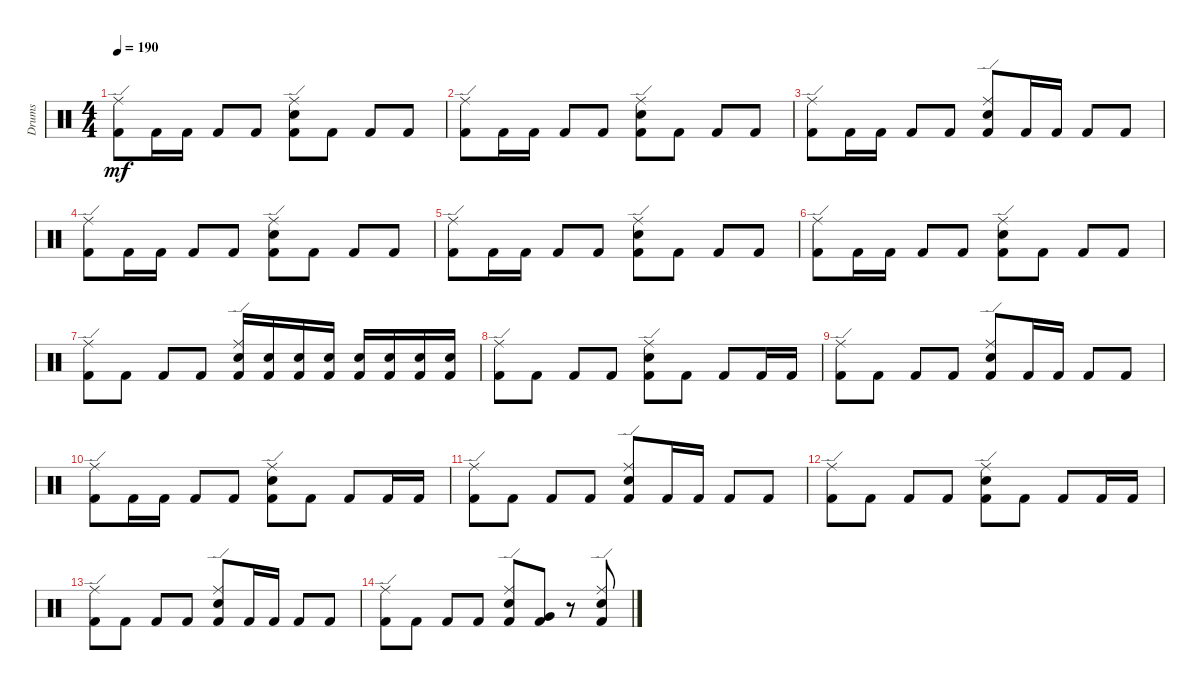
\defaultSystemsLayout 4
\bracketExtendMode groupsimilarinstruments
\otherSystemsTrackNameOrientation horizontal
\track ("Prakarsh" "Drums") {instrument percussion}
\staff {score}
\articulation defaults
\ts (4 4)
\tempo 190
\clef neutral
\ks c
("Kick (hit) 2" "Ride (edge)").8{dy mf beam Down} "Kick (hit) 2".16{beam Down} "Kick (hit) 2".16{beam Down} "Kick (hit) 2".8{beam Up} "Kick (hit) 2".8{beam Up} ("Kick (hit) 2" "Ride (edge)" "Snare (hit) 2").8{beam Down} "Kick (hit) 2".8{beam Down} "Kick (hit) 2".8{beam Up} "Kick (hit) 2".8{beam Up} |
("Kick (hit) 2" "Ride (edge)").8{beam Down} "Kick (hit) 2".16{beam Down} "Kick (hit) 2".16{beam Down} "Kick (hit) 2".8{beam Up} "Kick (hit) 2".8{beam Up} ("Kick (hit) 2" "Ride (edge)" "Snare (hit) 2").8{beam Down} "Kick (hit) 2".8{beam Down} "Kick (hit) 2".8{beam Up} "Kick (hit) 2".8{beam Up} |
("Kick (hit) 2" "Ride (edge)").8{beam Down} "Kick (hit) 2".16{beam Down} "Kick (hit) 2".16{beam Down} "Kick (hit) 2".8{beam Up} "Kick (hit) 2".8{beam Up} ("Kick (hit) 2" "Ride (edge)" "Snare (hit) 2").8{beam Up} "Kick (hit) 2".16{beam Up} "Kick (hit) 2".16{beam Up} "Kick (hit) 2".8{beam Up} "Kick (hit) 2".8{beam Up} |
("Kick (hit) 2" "Ride (edge)").8{beam Down} "Kick (hit) 2".16{beam Down} "Kick (hit) 2".16{beam Down} "Kick (hit) 2".8{beam Up} "Kick (hit) 2".8{beam Up} ("Kick (hit) 2" "Ride (edge)" "Snare (hit) 2").8{beam Down} "Kick (hit) 2".8{beam Down} "Kick (hit) 2".8{beam Up} "Kick (hit) 2".8{beam Up} |
("Kick (hit) 2" "Ride (edge)").8{beam Down} "Kick (hit) 2".16{beam Down} "Kick (hit) 2".16{beam Down} "Kick (hit) 2".8{beam Up} "Kick (hit) 2".8{beam Up} ("Kick (hit) 2" "Ride (edge)" "Snare (hit) 2").8{beam Down} "Kick (hit) 2".8{beam Down} "Kick (hit) 2".8{beam Up} "Kick (hit) 2".8{beam Up} |
("Kick (hit) 2" "Ride (edge)").8{beam Down} "Kick (hit) 2".16{beam Down} "Kick (hit) 2".16{beam Down} "Kick (hit) 2".8{beam Up} "Kick (hit) 2".8{beam Up} ("Kick (hit) 2" "Ride (edge)" "Snare (hit) 2").8{beam Down} "Kick (hit) 2".8{beam Down} "Kick (hit) 2".8{beam Up} "Kick (hit) 2".8{beam Up} |
("Kick (hit) 2" "Ride (edge)").8{beam Down} "Kick (hit) 2".8{beam Down} "Kick (hit) 2".8{beam Up} "Kick (hit) 2".8{beam Up} ("Kick (hit) 2" "Ride (edge)" "Snare (hit) 2").16{beam Up} ("Kick (hit) 2" "Snare (hit) 2").16{beam Up} ("Kick (hit) 2" "Snare (hit) 2").16{beam Up} ("Kick (hit) 2" "Snare (hit) 2").16{beam Up} ("Kick (hit) 2" "Snare (hit) 2").16{beam Up} ("Kick (hit) 2" "Snare (hit) 2").16{beam Up} ("Kick (hit) 2" "Snare (hit) 2").16{beam Up} ("Kick (hit) 2" "Snare (hit) 2").16{beam Up} |
("Kick (hit) 2" "Ride (edge)").8{beam Down} "Kick (hit) 2".8{beam Down} "Kick (hit) 2".8{beam Up} "Kick (hit) 2".8{beam Up} ("Kick (hit) 2" "Ride (edge)" "Snare (hit) 2").8{beam Down} "Kick (hit) 2".8{beam Down} "Kick (hit) 2".8{beam Up} "Kick (hit) 2".16{beam Up} "Kick (hit) 2".16{beam Up} |
("Kick (hit) 2" "Ride (edge)").8{beam Down} "Kick (hit) 2".8{beam Down} "Kick (hit) 2".8{beam Up} "Kick (hit) 2".8{beam Up} ("Kick (hit) 2" "Ride (edge)" "Snare (hit) 2").8{beam Up} "Kick (hit) 2".16{beam Up} "Kick (hit) 2".16{beam Up} "Kick (hit) 2".8{beam Up} "Kick (hit) 2".8{beam Up} |
("Kick (hit) 2" "Ride (edge)").8{beam Down} "Kick (hit) 2".16{beam Down} "Kick (hit) 2".16{beam Down} "Kick (hit) 2".8{beam Up} "Kick (hit) 2".8{beam Up} ("Kick (hit) 2" "Ride (edge)" "Snare (hit) 2").8{beam Down} "Kick (hit) 2".8{beam Down} "Kick (hit) 2".8{beam Up} "Kick (hit) 2".16{beam Up} "Kick (hit) 2".16{beam Up} |
("Kick (hit) 2" "Ride (edge)").8{beam Down} "Kick (hit) 2".8{beam Down} "Kick (hit) 2".8{beam Up} "Kick (hit) 2".8{beam Up} ("Kick (hit) 2" "Ride (edge)" "Snare (hit) 2").8{beam Up} "Kick (hit) 2".16{beam Up} "Kick (hit) 2".16{beam Up} "Kick (hit) 2".8{beam Up} "Kick (hit) 2".8{beam Up} |
("Kick (hit) 2" "Ride (edge)").8{beam Down} "Kick (hit) 2".8{beam Down} "Kick (hit) 2".8{beam Up} "Kick (hit) 2".8{beam Up} ("Kick (hit) 2" "Ride (edge)" "Snare (hit) 2").8{beam Down} "Kick (hit) 2".8{beam Down} "Kick (hit) 2".8{beam Up} "Kick (hit) 2".16{beam Up} "Kick (hit) 2".16{beam Up} |
("Kick (hit) 2" "Ride (edge)").8{beam Down} "Kick (hit) 2".8{beam Down} "Kick (hit) 2".8{beam Up} "Kick (hit) 2".8{beam Up} ("Kick (hit) 2" "Ride (edge)" "Snare (hit) 2").8{beam Up} "Kick (hit) 2".16{beam Up} "Kick (hit) 2".16{beam Up} "Kick (hit) 2".8{beam Up} "Kick (hit) 2".8{beam Up} |
("Kick (hit) 2" "Ride (edge)").8{beam Down} "Kick (hit) 2".8{beam Down} "Kick (hit) 2".8{beam Up} "Kick (hit) 2".8{beam Up} ("Kick (hit) 2" "Ride (edge)" "Snare (hit) 2").8{beam Up} ("Kick (hit) 2" "Very Low Tom (hit)").8{beam Up} r.8{beam Up} ("Kick (hit) 2" "Snare (hit) 2" "Ride (edge)").8{beam Down}
